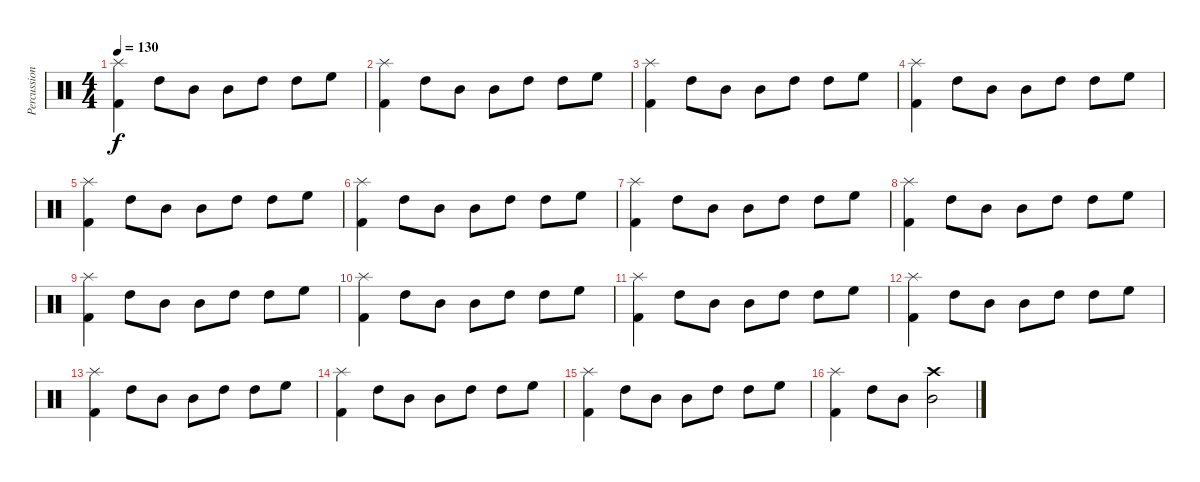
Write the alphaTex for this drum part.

\track ("Percussion" "Percussion") {instrument percussion}
\staff {score}
\articulation defaults
\ts (4 4)
\tempo 130
\clef neutral
\ks c
("Splash (hit)" "Kick (hit) 2").4{dy f} "High Tom (hit)".8 "Mid Tom (hit)".8 "Mid Tom (hit)".8 "High Tom (hit)".8 "High Tom (hit)".8 "High Floor Tom (hit)".8 |
("Splash (hit)" "Kick (hit) 2").4 "High Tom (hit)".8 "Mid Tom (hit)".8 "Mid Tom (hit)".8 "High Tom (hit)".8 "High Tom (hit)".8 "High Floor Tom (hit)".8 |
("Splash (hit)" "Kick (hit) 2").4 "High Tom (hit)".8 "Mid Tom (hit)".8 "Mid Tom (hit)".8 "High Tom (hit)".8 "High Tom (hit)".8 "High Floor Tom (hit)".8 |
("Splash (hit)" "Kick (hit) 2").4 "High Tom (hit)".8 "Mid Tom (hit)".8 "Mid Tom (hit)".8 "High Tom (hit)".8 "High Tom (hit)".8 "High Floor Tom (hit)".8 |
("Splash (hit)" "Kick (hit) 2").4 "High Tom (hit)".8 "Mid Tom (hit)".8 "Mid Tom (hit)".8 "High Tom (hit)".8 "High Tom (hit)".8 "High Floor Tom (hit)".8 |
("Splash (hit)" "Kick (hit) 2").4 "High Tom (hit)".8 "Mid Tom (hit)".8 "Mid Tom (hit)".8 "High Tom (hit)".8 "High Tom (hit)".8 "High Floor Tom (hit)".8 |
("Splash (hit)" "Kick (hit) 2").4 "High Tom (hit)".8 "Mid Tom (hit)".8 "Mid Tom (hit)".8 "High Tom (hit)".8 "High Tom (hit)".8 "High Floor Tom (hit)".8 |
("Splash (hit)" "Kick (hit) 2").4 "High Tom (hit)".8 "Mid Tom (hit)".8 "Mid Tom (hit)".8 "High Tom (hit)".8 "High Tom (hit)".8 "High Floor Tom (hit)".8 |
("Splash (hit)" "Kick (hit) 2").4 "High Tom (hit)".8 "Mid Tom (hit)".8 "Mid Tom (hit)".8 "High Tom (hit)".8 "High Tom (hit)".8 "High Floor Tom (hit)".8 |
("Splash (hit)" "Kick (hit) 2").4 "High Tom (hit)".8 "Mid Tom (hit)".8 "Mid Tom (hit)".8 "High Tom (hit)".8 "High Tom (hit)".8 "High Floor Tom (hit)".8 |
("Splash (hit)" "Kick (hit) 2").4 "High Tom (hit)".8 "Mid Tom (hit)".8 "Mid Tom (hit)".8 "High Tom (hit)".8 "High Tom (hit)".8 "High Floor Tom (hit)".8 |
("Splash (hit)" "Kick (hit) 2").4 "High Tom (hit)".8 "Mid Tom (hit)".8 "Mid Tom (hit)".8 "High Tom (hit)".8 "High Tom (hit)".8 "High Floor Tom (hit)".8 |
("Splash (hit)" "Kick (hit) 2").4 "High Tom (hit)".8 "Mid Tom (hit)".8 "Mid Tom (hit)".8 "High Tom (hit)".8 "High Tom (hit)".8 "High Floor Tom (hit)".8 |
("Splash (hit)" "Kick (hit) 2").4 "High Tom (hit)".8 "Mid Tom (hit)".8 "Mid Tom (hit)".8 "High Tom (hit)".8 "High Tom (hit)".8 "High Floor Tom (hit)".8 |
("Splash (hit)" "Kick (hit) 2").4 "High Tom (hit)".8 "Mid Tom (hit)".8 "Mid Tom (hit)".8 "High Tom (hit)".8 "High Tom (hit)".8 "High Floor Tom (hit)".8 |
("Splash (hit)" "Kick (hit) 2").4 "High Tom (hit)".8 "Mid Tom (hit)".8 ("Mid Tom (hit)" "Crash high (hit)").2
